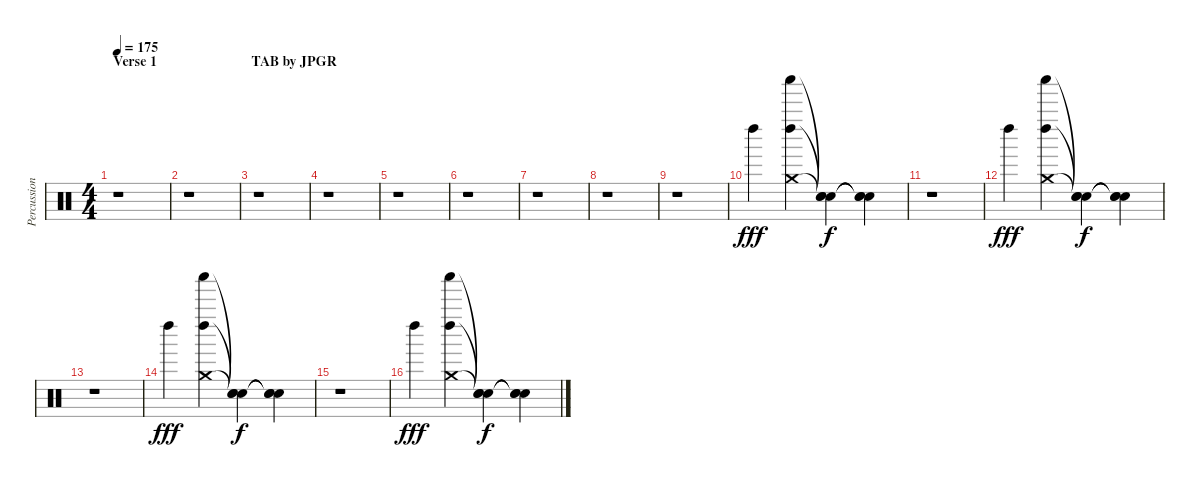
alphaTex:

\track ("Percussion" "Percussion") {instrument percussion}
\staff {score}
\articulation defaults
\ts (4 4)
\section ("" "Verse 1                           TAB by JPGR")
\tempo 175
\clef neutral
\ks c
r.1{dy fff} |
r.1 |
r.1 |
r.1 |
r.1 |
r.1 |
r.1 |
r.1 |
r.1 |
"Left Maraca (hit)".4{volume 16 balance 1} ("Crash medium (hit)" "Shaker (hit)" "Left Maraca (hit)").4 ("Snare (hit)"{t} "Snare (hit)"{t} "Snare (hit)"{t}).4{dy f} ("Snare (hit)"{t} "Snare (hit)"{t} "Snare (hit)"{t}).4 |
r.1 |
"Left Maraca (hit)".4{dy fff volume 16 balance 1} ("Crash medium (hit)" "Shaker (hit)" "Left Maraca (hit)").4 ("Snare (hit)"{t} "Snare (hit)"{t} "Snare (hit)"{t}).4{dy f} ("Snare (hit)"{t} "Snare (hit)"{t} "Snare (hit)"{t}).4 |
r.1 |
"Left Maraca (hit)".4{dy fff volume 16 balance 1} ("Crash medium (hit)" "Shaker (hit)" "Left Maraca (hit)").4 ("Snare (hit)"{t} "Snare (hit)"{t} "Snare (hit)"{t}).4{dy f} ("Snare (hit)"{t} "Snare (hit)"{t} "Snare (hit)"{t}).4 |
r.1 |
"Left Maraca (hit)".4{dy fff volume 16 balance 1} ("Crash medium (hit)" "Shaker (hit)" "Left Maraca (hit)").4 ("Snare (hit)"{t} "Snare (hit)"{t} "Snare (hit)"{t}).4{dy f} ("Snare (hit)"{t} "Snare (hit)"{t} "Snare (hit)"{t}).4
